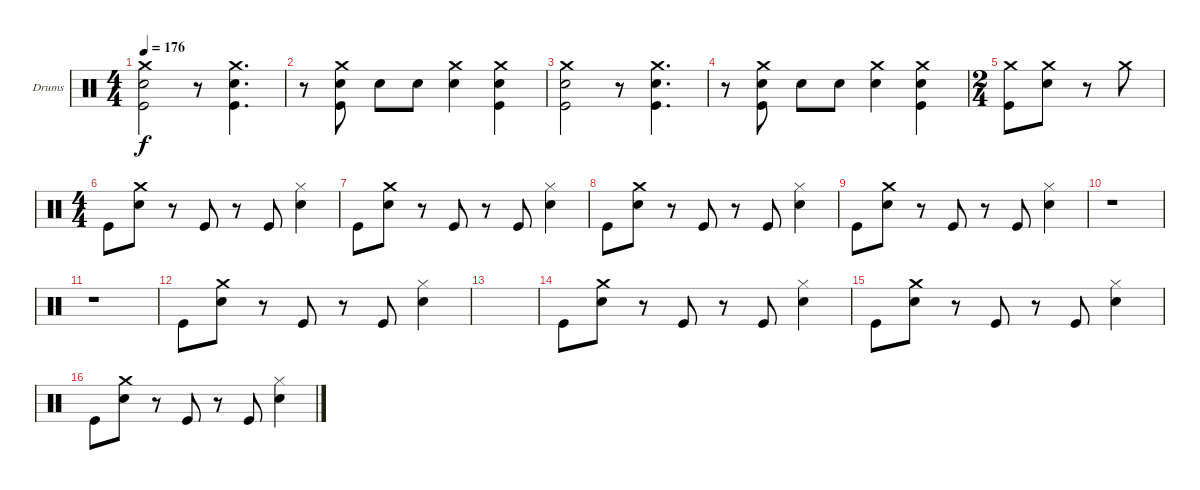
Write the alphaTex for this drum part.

\bracketExtendMode groupsimilarinstruments
\firstSystemTrackNameOrientation horizontal
\otherSystemsTrackNameOrientation horizontal
\track ("Drumkit" "Drums") {instrument percussion}
\staff {score}
\articulation defaults
\ts (4 4)
\tempo 176
\clef neutral
\ks c
("Crash medium (hit)" "Snare (hit) 2" "Kick (hit)").2{dy f} r.8 ("Crash medium (hit)" "Snare (hit) 2" "Kick (hit)").4{d} |
r.8 ("Crash medium (hit)" "Snare (hit) 2" "Kick (hit)").8 "Snare (hit) 2".8 "Snare (hit) 2".8 ("Crash medium (hit)" "Snare (hit) 2").4 ("Crash medium (hit)" "Snare (hit) 2" "Kick (hit)").4 |
("Crash medium (hit)" "Snare (hit) 2" "Kick (hit)").2 r.8 ("Crash medium (hit)" "Snare (hit) 2" "Kick (hit)").4{d} |
r.8 ("Crash medium (hit)" "Snare (hit) 2" "Kick (hit)").8 "Snare (hit) 2".8 "Snare (hit) 2".8 ("Crash medium (hit)" "Snare (hit) 2").4 ("Crash medium (hit)" "Snare (hit) 2" "Kick (hit)").4 |
\ts (2 4)
\beaming (8 2 2)
("Crash medium (hit)" "Kick (hit)").8 ("Crash medium (hit)" "Snare (hit) 2").8 r.8 "Crash medium (hit)".8 |
\ts (4 4)
\beaming (8 2 2 2 2)
"Kick (hit)".8 ("Crash medium (hit)" "Snare (hit) 2").8 r.8 "Kick (hit)".8 r.8 "Kick (hit)".8 ("Hi-Hat (closed)" "Snare (hit) 2").4 |
"Kick (hit)".8 ("Crash medium (hit)" "Snare (hit) 2").8 r.8 "Kick (hit)".8 r.8 "Kick (hit)".8 ("Hi-Hat (closed)" "Snare (hit) 2").4 |
"Kick (hit)".8 ("Crash medium (hit)" "Snare (hit) 2").8 r.8 "Kick (hit)".8 r.8 "Kick (hit)".8 ("Hi-Hat (closed)" "Snare (hit) 2").4 |
"Kick (hit)".8 ("Crash medium (hit)" "Snare (hit) 2").8 r.8 "Kick (hit)".8 r.8 "Kick (hit)".8 ("Hi-Hat (closed)" "Snare (hit) 2").4 |
r.1 |
r.1 |
"Kick (hit)".8 ("Crash medium (hit)" "Snare (hit) 2").8 r.8 "Kick (hit)".8 r.8 "Kick (hit)".8 ("Hi-Hat (closed)" "Snare (hit) 2").4 |
|
"Kick (hit)".8 ("Crash medium (hit)" "Snare (hit) 2").8 r.8 "Kick (hit)".8 r.8 "Kick (hit)".8 ("Hi-Hat (closed)" "Snare (hit) 2").4 |
"Kick (hit)".8 ("Crash medium (hit)" "Snare (hit) 2").8 r.8 "Kick (hit)".8 r.8 "Kick (hit)".8 ("Hi-Hat (closed)" "Snare (hit) 2").4 |
"Kick (hit)".8 ("Crash medium (hit)" "Snare (hit) 2").8 r.8 "Kick (hit)".8 r.8 "Kick (hit)".8 ("Hi-Hat (closed)" "Snare (hit) 2").4
